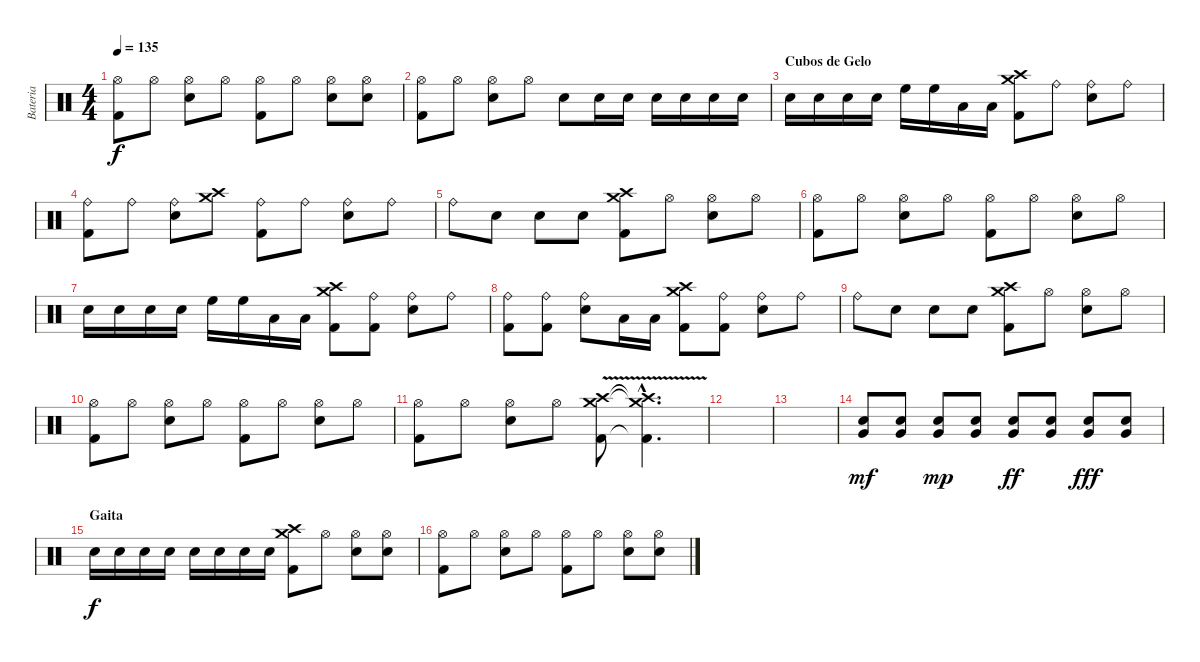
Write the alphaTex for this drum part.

\track ("Bateria" "Bateria") {instrument percussion}
\staff {score}
\articulation defaults
\ts (4 4)
\tempo 135
\clef neutral
\ks c
("Hi-Hat (open)" "Kick (hit) 2").8{dy f} "Hi-Hat (open)".8 ("Hi-Hat (open)" "Electric Snare (hit)").8 "Hi-Hat (open)".8 ("Hi-Hat (open)" "Kick (hit) 2").8 "Hi-Hat (open)".8 ("Hi-Hat (open)" "Electric Snare (hit)").8 ("Hi-Hat (open)" "Electric Snare (hit)").8 |
("Hi-Hat (open)" "Kick (hit) 2").8 "Hi-Hat (open)".8 ("Hi-Hat (open)" "Electric Snare (hit)").8 "Hi-Hat (open)".8 "Electric Snare (hit)".8 "Electric Snare (hit)".16 "Electric Snare (hit)".16 "Electric Snare (hit)".16 "Electric Snare (hit)".16 "Electric Snare (hit)".16 "Electric Snare (hit)".16 |
\section ("" "Cubos de Gelo")
"Electric Snare (hit)".16 "Electric Snare (hit)".16 "Electric Snare (hit)".16 "Electric Snare (hit)".16 "High Floor Tom (hit)".16 "High Floor Tom (hit)".16 "Low Tom (hit)".16 "Low Tom (hit)".16 ("Crash medium (hit)" "Crash high (hit)" "Kick (hit) 2").8 "Ride (bell)".8 ("Ride (bell)" "Electric Snare (hit)").8 "Ride (bell)".8 |
("Ride (bell)" "Kick (hit) 2").8 "Ride (bell)".8 ("Ride (bell)" "Electric Snare (hit)").8 ("Crash medium (hit)" "Crash high (hit)").8 ("Ride (bell)" "Kick (hit) 2").8 "Ride (bell)".8 ("Ride (bell)" "Electric Snare (hit)").8 "Ride (bell)".8 |
"Ride (bell)".8 "Electric Snare (hit)".8 "Electric Snare (hit)".8 "Electric Snare (hit)".8 ("Crash medium (hit)" "Crash high (hit)" "Kick (hit) 2").8 "Hi-Hat (open)".8 ("Hi-Hat (open)" "Electric Snare (hit)").8 "Hi-Hat (open)".8 |
("Hi-Hat (open)" "Kick (hit) 2").8 "Hi-Hat (open)".8 ("Hi-Hat (open)" "Electric Snare (hit)").8 "Hi-Hat (open)".8 ("Hi-Hat (open)" "Kick (hit) 2").8 "Hi-Hat (open)".8 ("Hi-Hat (open)" "Electric Snare (hit)").8 "Hi-Hat (open)".8 |
"Electric Snare (hit)".16 "Electric Snare (hit)".16 "Electric Snare (hit)".16 "Electric Snare (hit)".16 "High Floor Tom (hit)".16 "High Floor Tom (hit)".16 "Low Tom (hit)".16 "Low Tom (hit)".16 ("Crash medium (hit)" "Crash high (hit)" "Kick (hit) 2").8 ("Ride (bell)" "Kick (hit) 2").8 ("Ride (bell)" "Electric Snare (hit)").8 "Ride (bell)".8 |
("Ride (bell)" "Kick (hit) 2").8 ("Ride (bell)" "Kick (hit) 2").8 ("Ride (bell)" "Electric Snare (hit)").8 "Low Tom (hit)".16 "Low Tom (hit)".16 ("Crash medium (hit)" "Crash high (hit)" "Kick (hit) 2").8 ("Ride (bell)" "Kick (hit) 2").8 ("Ride (bell)" "Electric Snare (hit)").8 "Ride (bell)".8 |
"Ride (bell)".8 "Electric Snare (hit)".8 "Electric Snare (hit)".8 "Electric Snare (hit)".8 ("Crash medium (hit)" "Crash high (hit)" "Kick (hit) 2").8 "Hi-Hat (open)".8 ("Hi-Hat (open)" "Electric Snare (hit)").8 "Hi-Hat (open)".8 |
("Hi-Hat (open)" "Kick (hit) 2").8 "Hi-Hat (open)".8 ("Hi-Hat (open)" "Electric Snare (hit)").8 "Hi-Hat (open)".8 ("Hi-Hat (open)" "Kick (hit) 2").8 "Hi-Hat (open)".8 ("Hi-Hat (open)" "Electric Snare (hit)").8 "Hi-Hat (open)".8 |
("Hi-Hat (open)" "Kick (hit) 2").8 "Hi-Hat (open)".8 ("Hi-Hat (open)" "Electric Snare (hit)").8 "Hi-Hat (open)".8 ("Crash medium (hit)"{v} "Crash high (hit)"{v} "Kick (hit) 2").8 ("Crash medium (hit)"{hac t} "Crash high (hit)"{hac t} "Kick (hit) 2"{hac t}).4{d} |
|
|
("Electric Snare (hit)" "Very Low Tom (hit)").8{dy mf} ("Electric Snare (hit)" "Very Low Tom (hit)").8 ("Electric Snare (hit)" "Very Low Tom (hit)").8{dy mp} ("Electric Snare (hit)" "Very Low Tom (hit)").8 ("Electric Snare (hit)" "Very Low Tom (hit)").8{dy ff} ("Electric Snare (hit)" "Very Low Tom (hit)").8 ("Electric Snare (hit)" "Very Low Tom (hit)").8{dy fff} ("Electric Snare (hit)" "Very Low Tom (hit)").8 |
\section ("" "Gaita")
"Electric Snare (hit)".16{dy f} "Electric Snare (hit)".16 "Electric Snare (hit)".16 "Electric Snare (hit)".16 "Electric Snare (hit)".16 "Electric Snare (hit)".16 "Electric Snare (hit)".16 "Electric Snare (hit)".16 ("Crash medium (hit)" "Crash high (hit)" "Kick (hit) 2").8 "Hi-Hat (open)".8 ("Hi-Hat (open)" "Electric Snare (hit)").8 ("Hi-Hat (open)" "Electric Snare (hit)").8 |
("Hi-Hat (open)" "Kick (hit) 2").8 "Hi-Hat (open)".8 ("Hi-Hat (open)" "Electric Snare (hit)").8 "Hi-Hat (open)".8 ("Hi-Hat (open)" "Kick (hit) 2").8 "Hi-Hat (open)".8 ("Hi-Hat (open)" "Electric Snare (hit)").8 ("Hi-Hat (open)" "Electric Snare (hit)").8
